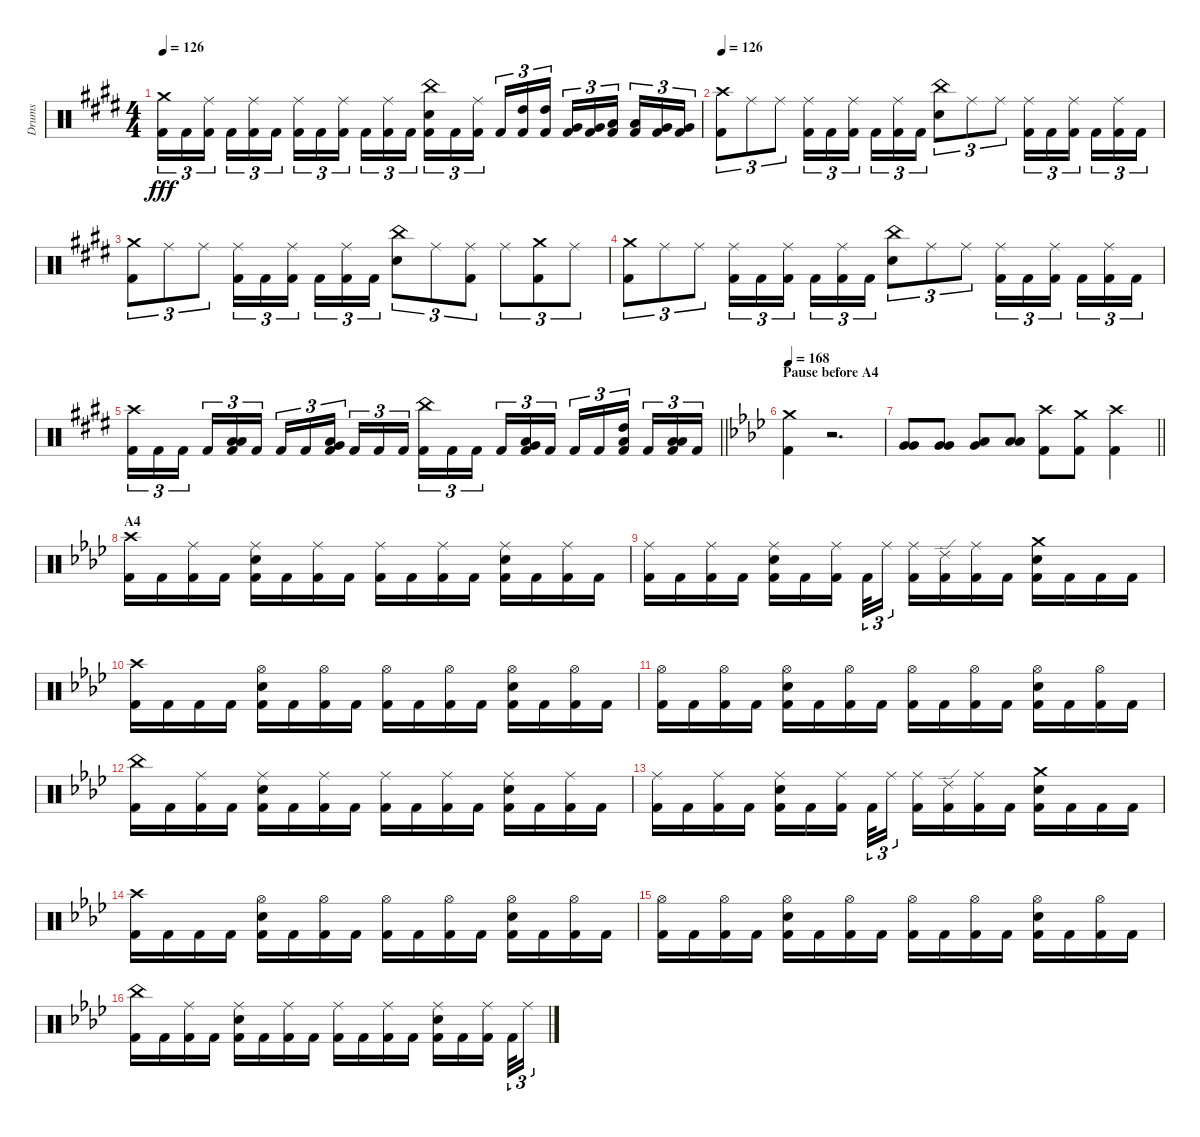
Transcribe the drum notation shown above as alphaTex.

\track ("Drums" "Drums") {instrument percussion}
\staff {score}
\articulation defaults
\ts (4 4)
\tempo 126
\clef neutral
\ks c#minor
("Crash medium (hit)" "Kick (hit) 2").16{tu (3 2) dy fff} "Kick (hit) 2".16{tu (3 2)} ("Ride (middle)" "Kick (hit) 2").16{tu (3 2) beam splitsecondary} "Kick (hit) 2".16{tu (3 2)} ("Ride (middle)" "Kick (hit) 2").16{tu (3 2)} "Kick (hit) 2".16{tu (3 2)} ("Ride (middle)" "Kick (hit) 2").16{tu (3 2)} "Kick (hit) 2".16{tu (3 2)} ("Ride (middle)" "Kick (hit) 2").16{tu (3 2) beam splitsecondary} "Kick (hit) 2".16{tu (3 2)} ("Ride (middle)" "Kick (hit) 2").16{tu (3 2)} "Kick (hit) 2".16{tu (3 2)} ("China (hit)" "Snare (hit) 2" "Kick (hit) 2").16{tu (3 2)} "Kick (hit) 2".16{tu (3 2)} ("Ride (middle)" "Kick (hit) 2").16{tu (3 2) beam splitsecondary} "Kick (hit) 2".16{tu (3 2)} ("Kick (hit) 2" "High Tom (hit)").16{tu (3 2)} ("Kick (hit) 2" "High Tom (hit)").16{tu (3 2)} ("Kick (hit) 2" "Very Low Tom (hit)").16{tu (3 2)} ("Kick (hit) 2" "Very Low Tom (hit)").16{tu (3 2)} ("Kick (hit) 2" "Low Tom (hit)").16{tu (3 2) beam splitsecondary} ("Kick (hit) 2" "Low Tom (hit)").16{tu (3 2)} ("Kick (hit) 2" "Very Low Tom (hit)").16{tu (3 2)} ("Kick (hit) 2" "Very Low Tom (hit)").16{tu (3 2)} |
\tempo 126
("Crash high (hit)" "Kick (hit) 2").8{tu (3 2)} "Ride (middle)".8{tu (3 2)} "Ride (middle)".8{tu (3 2)} ("Ride (middle)" "Kick (hit) 2").16{tu (3 2)} "Kick (hit) 2".16{tu (3 2)} ("Ride (middle)" "Kick (hit) 2").16{tu (3 2) beam splitsecondary} "Kick (hit) 2".16{tu (3 2)} ("Ride (middle)" "Kick (hit) 2").16{tu (3 2)} "Kick (hit) 2".16{tu (3 2)} ("China (hit)" "Snare (hit) 2").8{tu (3 2)} "Ride (middle)".8{tu (3 2)} "Ride (middle)".8{tu (3 2)} ("Ride (middle)" "Kick (hit) 2").16{tu (3 2)} "Kick (hit) 2".16{tu (3 2)} ("Ride (middle)" "Kick (hit) 2").16{tu (3 2) beam splitsecondary} "Kick (hit) 2".16{tu (3 2)} ("Ride (middle)" "Kick (hit) 2").16{tu (3 2)} "Kick (hit) 2".16{tu (3 2)} |
("Crash medium (hit)" "Kick (hit) 2").8{tu (3 2)} "Ride (middle)".8{tu (3 2)} "Ride (middle)".8{tu (3 2)} ("Ride (middle)" "Kick (hit) 2").16{tu (3 2)} "Kick (hit) 2".16{tu (3 2)} ("Ride (middle)" "Kick (hit) 2").16{tu (3 2) beam splitsecondary} "Kick (hit) 2".16{tu (3 2)} ("Ride (middle)" "Kick (hit) 2").16{tu (3 2)} "Kick (hit) 2".16{tu (3 2)} ("China (hit)" "Snare (hit) 2").8{tu (3 2)} "Ride (middle)".8{tu (3 2)} ("Ride (middle)" "Kick (hit) 2").8{tu (3 2)} "Ride (middle)".8{tu (3 2)} ("Crash medium (hit)" "Kick (hit) 2").8{tu (3 2)} "Ride (middle)".8{tu (3 2)} |
("Crash medium (hit)" "Kick (hit) 2").8{tu (3 2)} "Ride (middle)".8{tu (3 2)} "Ride (middle)".8{tu (3 2)} ("Ride (middle)" "Kick (hit) 2").16{tu (3 2)} "Kick (hit) 2".16{tu (3 2)} ("Ride (middle)" "Kick (hit) 2").16{tu (3 2) beam splitsecondary} "Kick (hit) 2".16{tu (3 2)} ("Ride (middle)" "Kick (hit) 2").16{tu (3 2)} "Kick (hit) 2".16{tu (3 2)} ("China (hit)" "Snare (hit) 2").8{tu (3 2)} "Ride (middle)".8{tu (3 2)} "Ride (middle)".8{tu (3 2)} ("Ride (middle)" "Kick (hit) 2").16{tu (3 2)} "Kick (hit) 2".16{tu (3 2)} ("Ride (middle)" "Kick (hit) 2").16{tu (3 2) beam splitsecondary} "Kick (hit) 2".16{tu (3 2)} ("Ride (middle)" "Kick (hit) 2").16{tu (3 2)} "Kick (hit) 2".16{tu (3 2)} |
\barLineRight lightlight
("Crash high (hit)" "Kick (hit) 2").16{tu (3 2)} "Kick (hit) 2".16{tu (3 2)} "Kick (hit) 2".16{tu (3 2) beam splitsecondary} "Kick (hit) 2".16{tu (3 2)} ("Kick (hit) 2" "Low Tom (hit)" "Low Tom (hit)").16{tu (3 2)} "Kick (hit) 2".16{tu (3 2)} "Kick (hit) 2".16{tu (3 2)} "Kick (hit) 2".16{tu (3 2)} ("Kick (hit) 2" "Very Low Tom (hit)" "Low Tom (hit)").16{tu (3 2) beam splitsecondary} "Kick (hit) 2".16{tu (3 2)} "Kick (hit) 2".16{tu (3 2)} "Kick (hit) 2".16{tu (3 2)} ("China (hit)" "Kick (hit) 2").16{tu (3 2)} "Kick (hit) 2".16{tu (3 2)} "Kick (hit) 2".16{tu (3 2) beam splitsecondary} "Kick (hit) 2".16{tu (3 2)} ("Kick (hit) 2" "Low Floor Tom (hit)" "Very Low Tom (hit)").16{tu (3 2)} "Kick (hit) 2".16{tu (3 2)} "Kick (hit) 2".16{tu (3 2)} "Kick (hit) 2".16{tu (3 2)} ("Kick (hit) 2" "Low Tom (hit)" "High Tom (hit)").16{tu (3 2) beam splitsecondary} "Kick (hit) 2".16{tu (3 2)} ("Kick (hit) 2" "Low Tom (hit)" "Low Tom (hit)").16{tu (3 2)} "Kick (hit) 2".16{tu (3 2)} |
\section ("" "Pause before A4")
\tempo 168
\ks fminor
("Crash medium (hit)" "Kick (hit) 2").4 r.2{d} |
\barLineRight lightlight
("Very Low Tom (hit)" "Very Low Tom (hit)").8 ("Very Low Tom (hit)" "Very Low Tom (hit)").8 ("Very Low Tom (hit)" "Low Floor Tom (hit)").8 ("Low Floor Tom (hit)" "Low Floor Tom (hit)").8 ("Crash high (hit)" "Kick (hit) 2").8 ("Crash medium (hit)" "Kick (hit) 2").8 ("Crash high (hit)" "Kick (hit) 2").4 |
\section ("" "A4")
("Crash high (hit)" "Kick (hit) 2").16 "Kick (hit) 2".16 ("Ride (middle)" "Kick (hit) 2").16 "Kick (hit) 2".16 ("Snare (hit) 2" "Ride (middle)" "Kick (hit) 2").16 "Kick (hit) 2".16 ("Ride (middle)" "Kick (hit) 2").16 "Kick (hit) 2".16 ("Ride (middle)" "Kick (hit) 2").16 "Kick (hit) 2".16 ("Ride (middle)" "Kick (hit) 2").16 "Kick (hit) 2".16 ("Snare (hit) 2" "Ride (middle)" "Kick (hit) 2").16 "Kick (hit) 2".16 ("Ride (middle)" "Kick (hit) 2").16 "Kick (hit) 2".16 |
("Ride (middle)" "Kick (hit) 2").16 "Kick (hit) 2".16 ("Ride (middle)" "Kick (hit) 2").16 "Kick (hit) 2".16 ("Snare (hit) 2" "Ride (middle)" "Kick (hit) 2").16 "Kick (hit) 2".16 ("Ride (middle)" "Kick (hit) 2").16{beam splitsecondary} "Kick (hit) 2".32{tu (3 2)} "Ride (middle)".16{tu (3 2)} ("Ride (middle)" "Kick (hit) 2").16 ("Ride (edge) 2" "Kick (hit) 2").16 ("Ride (middle)" "Kick (hit) 2").16 "Kick (hit) 2".16 ("Crash medium (hit)" "Snare (hit) 2" "Kick (hit) 2").16 "Kick (hit) 2".16 "Kick (hit) 2".16 "Kick (hit) 2".16 |
("Crash high (hit)" "Kick (hit) 2").16 "Kick (hit) 2".16 "Kick (hit) 2".16 "Kick (hit) 2".16 ("Hi-Hat (open)" "Snare (hit) 2" "Kick (hit) 2").16 "Kick (hit) 2".16 ("Hi-Hat (open)" "Kick (hit) 2").16 "Kick (hit) 2".16 ("Hi-Hat (open)" "Kick (hit) 2").16 "Kick (hit) 2".16 ("Hi-Hat (open)" "Kick (hit) 2").16 "Kick (hit) 2".16 ("Snare (hit) 2" "Hi-Hat (open)" "Kick (hit) 2").16 "Kick (hit) 2".16 ("Hi-Hat (open)" "Kick (hit) 2").16 "Kick (hit) 2".16 |
("Hi-Hat (open)" "Kick (hit) 2").16 "Kick (hit) 2".16 ("Hi-Hat (open)" "Kick (hit) 2").16 "Kick (hit) 2".16 ("Hi-Hat (open)" "Snare (hit) 2" "Kick (hit) 2").16 "Kick (hit) 2".16 ("Hi-Hat (open)" "Kick (hit) 2").16 "Kick (hit) 2".16 ("Hi-Hat (open)" "Kick (hit) 2").16 "Kick (hit) 2".16 ("Hi-Hat (open)" "Kick (hit) 2").16 "Kick (hit) 2".16 ("Snare (hit) 2" "Hi-Hat (open)" "Kick (hit) 2").16 "Kick (hit) 2".16 ("Hi-Hat (open)" "Kick (hit) 2").16 "Kick (hit) 2".16 |
("China (hit)" "Kick (hit) 2").16 "Kick (hit) 2".16 ("Ride (middle)" "Kick (hit) 2").16 "Kick (hit) 2".16 ("Snare (hit) 2" "Ride (middle)" "Kick (hit) 2").16 "Kick (hit) 2".16 ("Ride (middle)" "Kick (hit) 2").16 "Kick (hit) 2".16 ("Ride (middle)" "Kick (hit) 2").16 "Kick (hit) 2".16 ("Ride (middle)" "Kick (hit) 2").16 "Kick (hit) 2".16 ("Snare (hit) 2" "Ride (middle)" "Kick (hit) 2").16 "Kick (hit) 2".16 ("Ride (middle)" "Kick (hit) 2").16 "Kick (hit) 2".16 |
("Ride (middle)" "Kick (hit) 2").16 "Kick (hit) 2".16 ("Ride (middle)" "Kick (hit) 2").16 "Kick (hit) 2".16 ("Ride (middle)" "Snare (hit) 2" "Kick (hit) 2").16 "Kick (hit) 2".16 ("Ride (middle)" "Kick (hit) 2").16{beam splitsecondary} "Kick (hit) 2".32{tu (3 2)} "Ride (middle)".16{tu (3 2)} ("Ride (middle)" "Kick (hit) 2").16 ("Ride (edge) 2" "Kick (hit) 2").16 ("Ride (middle)" "Kick (hit) 2").16 "Kick (hit) 2".16 ("Crash medium (hit)" "Snare (hit) 2" "Kick (hit) 2").16 "Kick (hit) 2".16 "Kick (hit) 2".16 "Kick (hit) 2".16 |
("Crash high (hit)" "Kick (hit) 2").16 "Kick (hit) 2".16 "Kick (hit) 2".16 "Kick (hit) 2".16 ("Hi-Hat (open)" "Snare (hit) 2" "Kick (hit) 2").16 "Kick (hit) 2".16 ("Hi-Hat (open)" "Kick (hit) 2").16 "Kick (hit) 2".16 ("Hi-Hat (open)" "Kick (hit) 2").16 "Kick (hit) 2".16 ("Hi-Hat (open)" "Kick (hit) 2").16 "Kick (hit) 2".16 ("Snare (hit) 2" "Hi-Hat (open)" "Kick (hit) 2").16 "Kick (hit) 2".16 ("Hi-Hat (open)" "Kick (hit) 2").16 "Kick (hit) 2".16 |
("Hi-Hat (open)" "Kick (hit) 2").16 "Kick (hit) 2".16 ("Hi-Hat (open)" "Kick (hit) 2").16 "Kick (hit) 2".16 ("Snare (hit) 2" "Hi-Hat (open)" "Kick (hit) 2").16 "Kick (hit) 2".16 ("Hi-Hat (open)" "Kick (hit) 2").16 "Kick (hit) 2".16 ("Hi-Hat (open)" "Kick (hit) 2").16 "Kick (hit) 2".16 ("Hi-Hat (open)" "Kick (hit) 2").16 "Kick (hit) 2".16 ("Snare (hit) 2" "Hi-Hat (open)" "Kick (hit) 2").16 "Kick (hit) 2".16 ("Hi-Hat (open)" "Kick (hit) 2").16 "Kick (hit) 2".16 |
("China (hit)" "Kick (hit) 2").16 "Kick (hit) 2".16 ("Ride (middle)" "Kick (hit) 2").16 "Kick (hit) 2".16 ("Snare (hit) 2" "Ride (middle)" "Kick (hit) 2").16 "Kick (hit) 2".16 ("Ride (middle)" "Kick (hit) 2").16 "Kick (hit) 2".16 ("Ride (middle)" "Kick (hit) 2").16 "Kick (hit) 2".16 ("Ride (middle)" "Kick (hit) 2").16 "Kick (hit) 2".16 ("Snare (hit) 2" "Ride (middle)" "Kick (hit) 2").16 "Kick (hit) 2".16 ("Ride (middle)" "Kick (hit) 2").16{beam splitsecondary} "Kick (hit) 2".32{tu (3 2)} "Ride (middle)".16{tu (3 2)}
